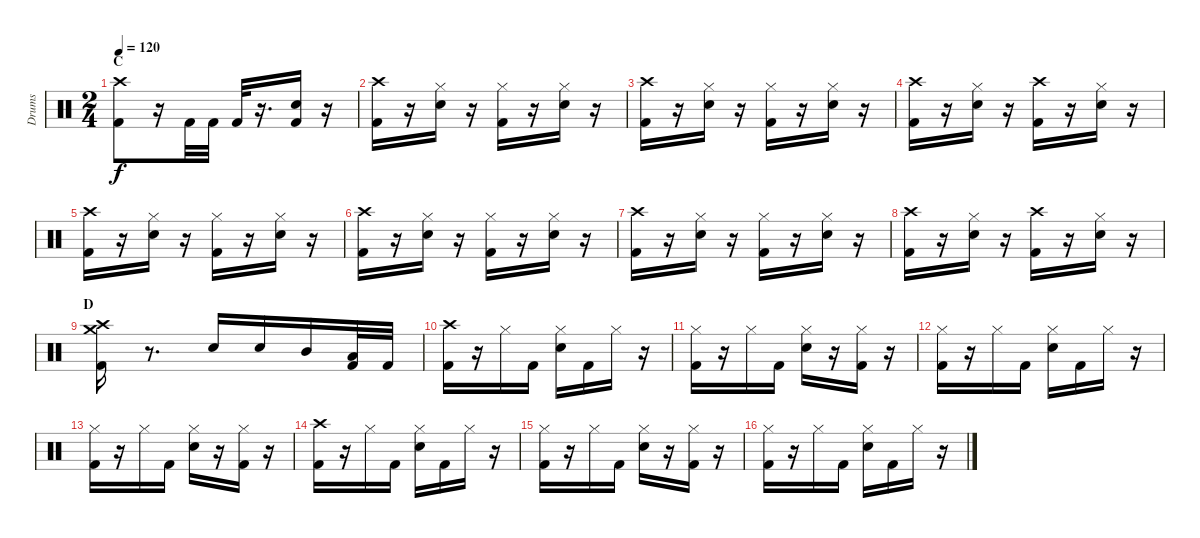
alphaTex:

\track ("Drums" "Drums") {instrument percussion}
\staff {score}
\articulation defaults
\ts (2 4)
\section ("" "C")
\tempo 120
\clef neutral
\ks c
("Crash high (hit)" "Kick (hit) 2").8{dy f} r.16 "Kick (hit) 2".32 "Kick (hit) 2".32 "Kick (hit) 2".32 r.16{d} ("Snare (hit) 2" "Kick (hit) 2").16 r.16 |
("Crash high (hit)" "Kick (hit) 2").16 r.16 ("Hi-Hat (closed)" "Snare (hit) 2").16 r.16 ("Hi-Hat (closed)" "Kick (hit) 2").16 r.16 ("Hi-Hat (closed)" "Snare (hit) 2").16 r.16 |
("Crash high (hit)" "Kick (hit) 2").16 r.16 ("Hi-Hat (closed)" "Snare (hit) 2").16 r.16 ("Hi-Hat (closed)" "Kick (hit) 2").16 r.16 ("Hi-Hat (closed)" "Snare (hit) 2").16 r.16 |
("Crash high (hit)" "Kick (hit) 2").16 r.16 ("Hi-Hat (closed)" "Snare (hit) 2").16 r.16 ("Crash high (hit)" "Kick (hit) 2").16 r.16 ("Hi-Hat (closed)" "Snare (hit) 2").16 r.16 |
("Crash high (hit)" "Kick (hit) 2").16 r.16 ("Hi-Hat (closed)" "Snare (hit) 2").16 r.16 ("Hi-Hat (closed)" "Kick (hit) 2").16 r.16 ("Hi-Hat (closed)" "Snare (hit) 2").16 r.16 |
("Crash high (hit)" "Kick (hit) 2").16 r.16 ("Hi-Hat (closed)" "Snare (hit) 2").16 r.16 ("Hi-Hat (closed)" "Kick (hit) 2").16 r.16 ("Hi-Hat (closed)" "Snare (hit) 2").16 r.16 |
("Crash high (hit)" "Kick (hit) 2").16 r.16 ("Hi-Hat (closed)" "Snare (hit) 2").16 r.16 ("Hi-Hat (closed)" "Kick (hit) 2").16 r.16 ("Hi-Hat (closed)" "Snare (hit) 2").16 r.16 |
("Crash high (hit)" "Kick (hit) 2").16 r.16 ("Hi-Hat (closed)" "Snare (hit) 2").16 r.16 ("Crash high (hit)" "Kick (hit) 2").16 r.16 ("Hi-Hat (closed)" "Snare (hit) 2").16 r.16 |
\section ("" "D")
("Crash medium (hit)" "Crash high (hit)" "Kick (hit) 2").16 r.8{d} "Snare (hit) 2".16 "Snare (hit) 2".16 "Mid Tom (hit)".16 ("Low Tom (hit)" "Kick (hit) 2").32 "Kick (hit) 2".32 |
("Crash high (hit)" "Kick (hit) 2").16 r.16 "Hi-Hat (closed)".16 "Kick (hit) 2".16 ("Snare (hit) 2" "Hi-Hat (closed)").16 "Kick (hit) 2".16 "Hi-Hat (closed)".16 r.16 |
("Hi-Hat (closed)" "Kick (hit) 2").16 r.16 "Hi-Hat (closed)".16 "Kick (hit) 2".16 ("Hi-Hat (closed)" "Snare (hit) 2").16 r.16 ("Kick (hit) 2" "Hi-Hat (closed)").16 r.16 |
("Hi-Hat (closed)" "Kick (hit) 2").16 r.16 "Hi-Hat (closed)".16 "Kick (hit) 2".16 ("Hi-Hat (closed)" "Snare (hit) 2").16 "Kick (hit) 2".16 "Hi-Hat (closed)".16 r.16 |
("Hi-Hat (closed)" "Kick (hit) 2").16 r.16 "Hi-Hat (closed)".16 "Kick (hit) 2".16 ("Hi-Hat (closed)" "Snare (hit) 2").16 r.16 ("Kick (hit) 2" "Hi-Hat (closed)").16 r.16 |
("Crash high (hit)" "Kick (hit) 2").16 r.16 "Hi-Hat (closed)".16 "Kick (hit) 2".16 ("Snare (hit) 2" "Hi-Hat (closed)").16 "Kick (hit) 2".16 "Hi-Hat (closed)".16 r.16 |
("Hi-Hat (closed)" "Kick (hit) 2").16 r.16 "Hi-Hat (closed)".16 "Kick (hit) 2".16 ("Hi-Hat (closed)" "Snare (hit) 2").16 r.16 ("Kick (hit) 2" "Hi-Hat (closed)").16 r.16 |
("Hi-Hat (closed)" "Kick (hit) 2").16 r.16 "Hi-Hat (closed)".16 "Kick (hit) 2".16 ("Hi-Hat (closed)" "Snare (hit) 2").16 "Kick (hit) 2".16 "Hi-Hat (closed)".16 r.16
